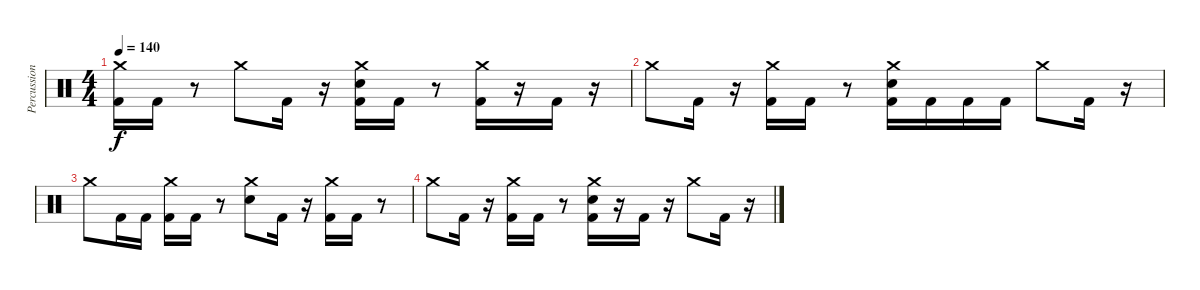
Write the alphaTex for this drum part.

\track ("Percussion" "Percussion") {instrument percussion}
\staff {score}
\articulation defaults
\ts (4 4)
\tempo 140
\clef neutral
\ks c
("Crash medium (hit)" "Kick (hit) 2").16{dy f volume 0} "Kick (hit) 2".16 r.8 "Crash medium (hit)".8 "Kick (hit) 2".16 r.16 ("Crash medium (hit)" "Snare (hit) 2" "Kick (hit) 2").16 "Kick (hit) 2".16 r.8 ("Crash medium (hit)" "Kick (hit) 2").16 r.16 "Kick (hit) 2".16 r.16 |
"Crash medium (hit)".8 "Kick (hit) 2".16 r.16 ("Crash medium (hit)" "Kick (hit) 2").16 "Kick (hit) 2".16 r.8 ("Crash medium (hit)" "Snare (hit) 2" "Kick (hit) 2").16 "Kick (hit) 2".16 "Kick (hit) 2".16 "Kick (hit) 2".16 "Crash medium (hit)".8 "Kick (hit) 2".16 r.16 |
"Crash medium (hit)".8 "Kick (hit) 2".16 "Kick (hit) 2".16 ("Crash medium (hit)" "Kick (hit) 2").16 "Kick (hit) 2".16 r.8 ("Crash medium (hit)" "Snare (hit) 2").8 "Kick (hit) 2".16 r.16 ("Crash medium (hit)" "Kick (hit) 2").16 "Kick (hit) 2".16 r.8 |
"Crash medium (hit)".8 "Kick (hit) 2".16 r.16 ("Crash medium (hit)" "Kick (hit) 2").16 "Kick (hit) 2".16 r.8 ("Crash medium (hit)" "Snare (hit) 2" "Kick (hit) 2").16 r.16 "Kick (hit) 2".16 r.16 "Crash medium (hit)".8 "Kick (hit) 2".16 r.16
